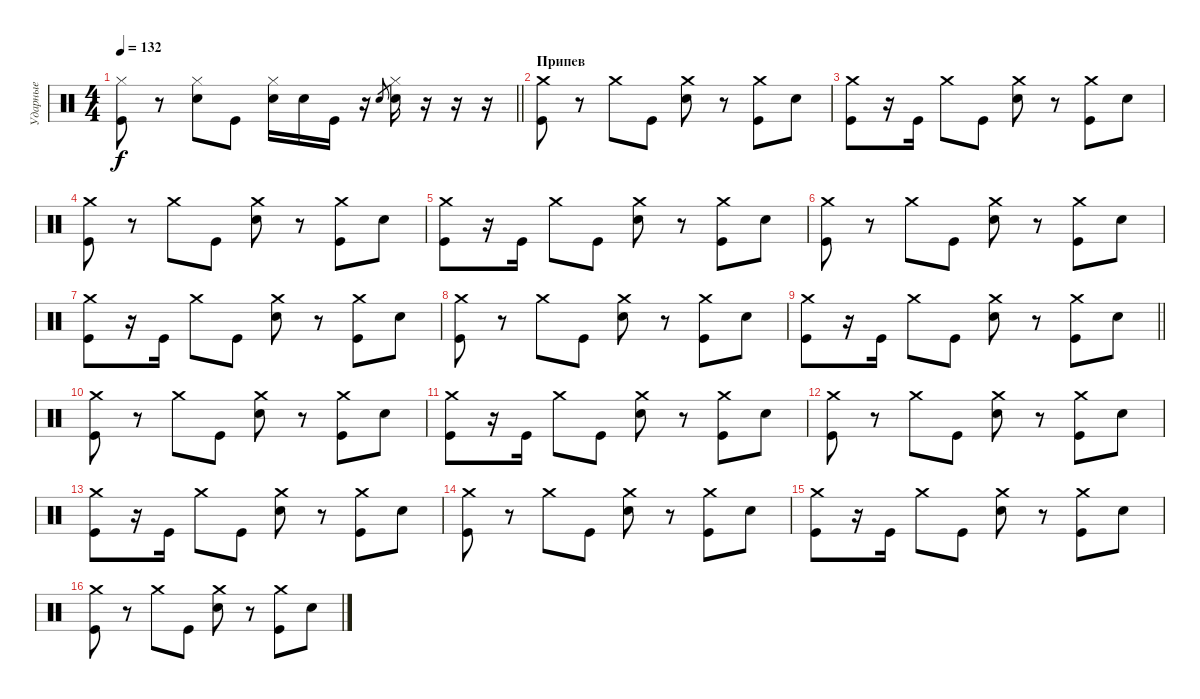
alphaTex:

\track ("Ударные" "Ударные") {instrument percussion}
\staff {score}
\articulation defaults
\ts (4 4)
\tempo 132
\clef neutral
\barLineRight lightlight
\ks c
("Hi-Hat (closed)" "Kick (hit)").8{dy f} r.8 ("Hi-Hat (closed)" "Electric Snare (hit)").8 "Kick (hit)".8 ("Hi-Hat (closed)" "Electric Snare (hit)").16 "Electric Snare (hit)".16 "Kick (hit)".16 r.16 "Electric Snare (hit)".8{gr} ("Hi-Hat (closed)" "Electric Snare (hit)").16 r.16 r.16 r.16 |
\section ("" "Припев")
("Crash medium (hit)" "Kick (hit)").8 r.8 "Crash medium (hit)".8 "Kick (hit)".8 ("Crash medium (hit)" "Electric Snare (hit)").8 r.8 ("Crash medium (hit)" "Kick (hit)").8 "Electric Snare (hit)".8 |
("Crash medium (hit)" "Kick (hit)").8 r.16 "Kick (hit)".16 "Crash medium (hit)".8 "Kick (hit)".8 ("Crash medium (hit)" "Electric Snare (hit)").8 r.8 ("Crash medium (hit)" "Kick (hit)").8 "Electric Snare (hit)".8 |
("Crash medium (hit)" "Kick (hit)").8 r.8 "Crash medium (hit)".8 "Kick (hit)".8 ("Crash medium (hit)" "Electric Snare (hit)").8 r.8 ("Crash medium (hit)" "Kick (hit)").8 "Electric Snare (hit)".8 |
("Crash medium (hit)" "Kick (hit)").8 r.16 "Kick (hit)".16 "Crash medium (hit)".8 "Kick (hit)".8 ("Crash medium (hit)" "Electric Snare (hit)").8 r.8 ("Crash medium (hit)" "Kick (hit)").8 "Electric Snare (hit)".8 |
("Crash medium (hit)" "Kick (hit)").8 r.8 "Crash medium (hit)".8 "Kick (hit)".8 ("Crash medium (hit)" "Electric Snare (hit)").8 r.8 ("Crash medium (hit)" "Kick (hit)").8 "Electric Snare (hit)".8 |
("Crash medium (hit)" "Kick (hit)").8 r.16 "Kick (hit)".16 "Crash medium (hit)".8 "Kick (hit)".8 ("Crash medium (hit)" "Electric Snare (hit)").8 r.8 ("Crash medium (hit)" "Kick (hit)").8 "Electric Snare (hit)".8 |
("Crash medium (hit)" "Kick (hit)").8 r.8 "Crash medium (hit)".8 "Kick (hit)".8 ("Crash medium (hit)" "Electric Snare (hit)").8 r.8 ("Crash medium (hit)" "Kick (hit)").8 "Electric Snare (hit)".8 |
\barLineRight lightlight
("Crash medium (hit)" "Kick (hit)").8 r.16 "Kick (hit)".16 "Crash medium (hit)".8 "Kick (hit)".8 ("Crash medium (hit)" "Electric Snare (hit)").8 r.8 ("Crash medium (hit)" "Kick (hit)").8 "Electric Snare (hit)".8 |
("Crash medium (hit)" "Kick (hit)").8 r.8 "Crash medium (hit)".8 "Kick (hit)".8 ("Crash medium (hit)" "Electric Snare (hit)").8 r.8 ("Crash medium (hit)" "Kick (hit)").8 "Electric Snare (hit)".8 |
("Crash medium (hit)" "Kick (hit)").8 r.16 "Kick (hit)".16 "Crash medium (hit)".8 "Kick (hit)".8 ("Crash medium (hit)" "Electric Snare (hit)").8 r.8 ("Crash medium (hit)" "Kick (hit)").8 "Electric Snare (hit)".8 |
("Crash medium (hit)" "Kick (hit)").8 r.8 "Crash medium (hit)".8 "Kick (hit)".8 ("Crash medium (hit)" "Electric Snare (hit)").8 r.8 ("Crash medium (hit)" "Kick (hit)").8 "Electric Snare (hit)".8 |
("Crash medium (hit)" "Kick (hit)").8 r.16 "Kick (hit)".16 "Crash medium (hit)".8 "Kick (hit)".8 ("Crash medium (hit)" "Electric Snare (hit)").8 r.8 ("Crash medium (hit)" "Kick (hit)").8 "Electric Snare (hit)".8 |
("Crash medium (hit)" "Kick (hit)").8 r.8 "Crash medium (hit)".8 "Kick (hit)".8 ("Crash medium (hit)" "Electric Snare (hit)").8 r.8 ("Crash medium (hit)" "Kick (hit)").8 "Electric Snare (hit)".8 |
("Crash medium (hit)" "Kick (hit)").8 r.16 "Kick (hit)".16 "Crash medium (hit)".8 "Kick (hit)".8 ("Crash medium (hit)" "Electric Snare (hit)").8 r.8 ("Crash medium (hit)" "Kick (hit)").8 "Electric Snare (hit)".8 |
("Crash medium (hit)" "Kick (hit)").8 r.8 "Crash medium (hit)".8 "Kick (hit)".8 ("Crash medium (hit)" "Electric Snare (hit)").8 r.8 ("Crash medium (hit)" "Kick (hit)").8 "Electric Snare (hit)".8
